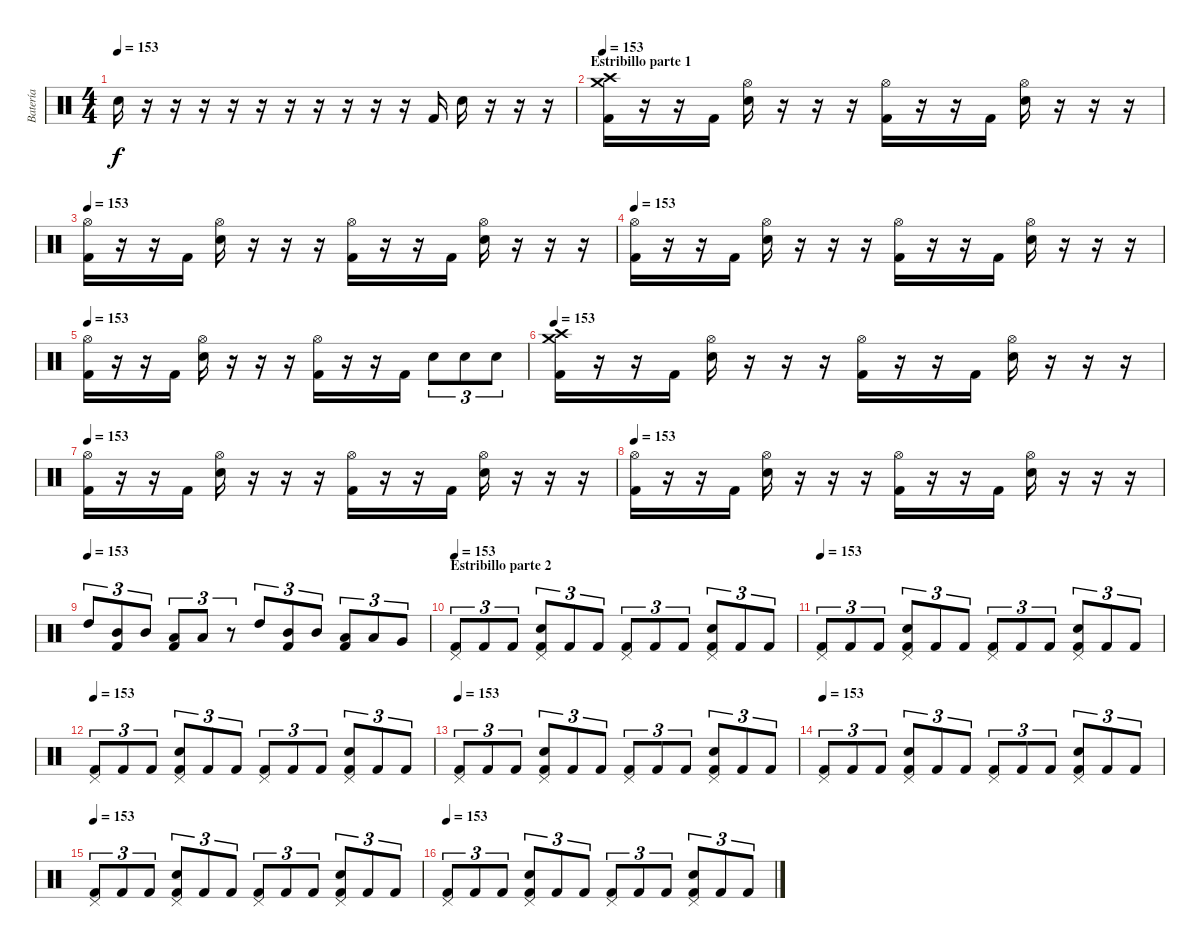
\track ("Batería" "Batería") {instrument percussion}
\staff {score}
\articulation defaults
\ts (4 4)
\tempo 153
\clef neutral
\ks c "Snare (hit) 2".16{dy f}
r.16 r.16 r.16 r.16 r.16 r.16 r.16 r.16 r.16 r.16 "Kick (hit) 2".16 "Snare (hit) 2".16 r.16 r.16 r.16 |
\section ("" "Estribillo parte 1")
\tempo 153
("Crash medium (hit)" "Crash high (hit)" "Kick (hit) 2").16 r.16 r.16 "Kick (hit) 2".16 ("Hi-Hat (open)" "Snare (hit) 2").16 r.16 r.16 r.16 ("Hi-Hat (open)" "Kick (hit) 2").16 r.16 r.16 "Kick (hit) 2".16 ("Hi-Hat (open)" "Snare (hit) 2").16 r.16 r.16 r.16 |
\tempo 153
("Hi-Hat (open)" "Kick (hit) 2").16 r.16 r.16 "Kick (hit) 2".16 ("Hi-Hat (open)" "Snare (hit) 2").16 r.16 r.16 r.16 ("Hi-Hat (open)" "Kick (hit) 2").16 r.16 r.16 "Kick (hit) 2".16 ("Hi-Hat (open)" "Snare (hit) 2").16 r.16 r.16 r.16 |
\tempo 153
("Hi-Hat (open)" "Kick (hit) 2").16 r.16 r.16 "Kick (hit) 2".16 ("Hi-Hat (open)" "Snare (hit) 2").16 r.16 r.16 r.16 ("Hi-Hat (open)" "Kick (hit) 2").16 r.16 r.16 "Kick (hit) 2".16 ("Hi-Hat (open)" "Snare (hit) 2").16 r.16 r.16 r.16 |
\tempo 153
("Hi-Hat (open)" "Kick (hit) 2").16 r.16 r.16 "Kick (hit) 2".16 ("Hi-Hat (open)" "Snare (hit) 2").16 r.16 r.16 r.16 ("Hi-Hat (open)" "Kick (hit) 2").16 r.16 r.16 "Kick (hit) 2".16 "Snare (hit) 2".8{tu (3 2)} "Snare (hit) 2".8{tu (3 2)} "Snare (hit) 2".8{tu (3 2)} |
\tempo 153
("Crash medium (hit)" "Crash high (hit)" "Kick (hit) 2").16 r.16 r.16 "Kick (hit) 2".16 ("Hi-Hat (open)" "Snare (hit) 2").16 r.16 r.16 r.16 ("Hi-Hat (open)" "Kick (hit) 2").16 r.16 r.16 "Kick (hit) 2".16 ("Hi-Hat (open)" "Snare (hit) 2").16 r.16 r.16 r.16 |
\tempo 153
("Hi-Hat (open)" "Kick (hit) 2").16 r.16 r.16 "Kick (hit) 2".16 ("Hi-Hat (open)" "Snare (hit) 2").16 r.16 r.16 r.16 ("Hi-Hat (open)" "Kick (hit) 2").16 r.16 r.16 "Kick (hit) 2".16 ("Hi-Hat (open)" "Snare (hit) 2").16 r.16 r.16 r.16 |
\tempo 153
("Hi-Hat (open)" "Kick (hit) 2").16 r.16 r.16 "Kick (hit) 2".16 ("Hi-Hat (open)" "Snare (hit) 2").16 r.16 r.16 r.16 ("Hi-Hat (open)" "Kick (hit) 2").16 r.16 r.16 "Kick (hit) 2".16 ("Hi-Hat (open)" "Snare (hit) 2").16 r.16 r.16 r.16 |
\tempo (153)
"High Tom (hit)".8{tu (3 2)} ("Mid Tom (hit)" "Kick (hit) 2").8{tu (3 2)} "Mid Tom (hit)".8{tu (3 2)} ("Low Tom (hit)" "Kick (hit) 2").8{tu (3 2)} "Low Tom (hit)".8{tu (3 2)} r.8{tu (3 2)} "High Tom (hit)".8{tu (3 2)} ("Mid Tom (hit)" "Kick (hit) 2").8{tu (3 2)} "Mid Tom (hit)".8{tu (3 2)} ("Low Tom (hit)" "Kick (hit) 2").8{tu (3 2)} "Low Tom (hit)".8{tu (3 2)} "Very Low Tom (hit)".8{tu (3 2)} |
\section ("" "Estribillo parte 2")
\tempo 153
("Pedal Hi-Hat (hit)" "Kick (hit) 2").8{tu (3 2)} "Kick (hit) 2".8{tu (3 2)} "Kick (hit) 2".8{tu (3 2)} ("Pedal Hi-Hat (hit)" "Kick (hit) 2" "Snare (hit) 2").8{tu (3 2)} "Kick (hit) 2".8{tu (3 2)} "Kick (hit) 2".8{tu (3 2)} ("Pedal Hi-Hat (hit)" "Kick (hit) 2").8{tu (3 2)} "Kick (hit) 2".8{tu (3 2)} "Kick (hit) 2".8{tu (3 2)} ("Pedal Hi-Hat (hit)" "Kick (hit) 2" "Snare (hit) 2").8{tu (3 2)} "Kick (hit) 2".8{tu (3 2)} "Kick (hit) 2".8{tu (3 2)} |
\tempo 153
("Pedal Hi-Hat (hit)" "Kick (hit) 2").8{tu (3 2)} "Kick (hit) 2".8{tu (3 2)} "Kick (hit) 2".8{tu (3 2)} ("Pedal Hi-Hat (hit)" "Kick (hit) 2" "Snare (hit) 2").8{tu (3 2)} "Kick (hit) 2".8{tu (3 2)} "Kick (hit) 2".8{tu (3 2)} ("Pedal Hi-Hat (hit)" "Kick (hit) 2").8{tu (3 2)} "Kick (hit) 2".8{tu (3 2)} "Kick (hit) 2".8{tu (3 2)} ("Pedal Hi-Hat (hit)" "Kick (hit) 2" "Snare (hit) 2").8{tu (3 2)} "Kick (hit) 2".8{tu (3 2)} "Kick (hit) 2".8{tu (3 2)} |
\tempo 153
("Pedal Hi-Hat (hit)" "Kick (hit) 2").8{tu (3 2)} "Kick (hit) 2".8{tu (3 2)} "Kick (hit) 2".8{tu (3 2)} ("Pedal Hi-Hat (hit)" "Kick (hit) 2" "Snare (hit) 2").8{tu (3 2)} "Kick (hit) 2".8{tu (3 2)} "Kick (hit) 2".8{tu (3 2)} ("Pedal Hi-Hat (hit)" "Kick (hit) 2").8{tu (3 2)} "Kick (hit) 2".8{tu (3 2)} "Kick (hit) 2".8{tu (3 2)} ("Pedal Hi-Hat (hit)" "Kick (hit) 2" "Snare (hit) 2").8{tu (3 2)} "Kick (hit) 2".8{tu (3 2)} "Kick (hit) 2".8{tu (3 2)} |
\tempo 153
("Pedal Hi-Hat (hit)" "Kick (hit) 2").8{tu (3 2)} "Kick (hit) 2".8{tu (3 2)} "Kick (hit) 2".8{tu (3 2)} ("Pedal Hi-Hat (hit)" "Kick (hit) 2" "Snare (hit) 2").8{tu (3 2)} "Kick (hit) 2".8{tu (3 2)} "Kick (hit) 2".8{tu (3 2)} ("Pedal Hi-Hat (hit)" "Kick (hit) 2").8{tu (3 2)} "Kick (hit) 2".8{tu (3 2)} "Kick (hit) 2".8{tu (3 2)} ("Pedal Hi-Hat (hit)" "Kick (hit) 2" "Snare (hit) 2").8{tu (3 2)} "Kick (hit) 2".8{tu (3 2)} "Kick (hit) 2".8{tu (3 2)} |
\tempo 153
("Pedal Hi-Hat (hit)" "Kick (hit) 2").8{tu (3 2)} "Kick (hit) 2".8{tu (3 2)} "Kick (hit) 2".8{tu (3 2)} ("Pedal Hi-Hat (hit)" "Kick (hit) 2" "Snare (hit) 2").8{tu (3 2)} "Kick (hit) 2".8{tu (3 2)} "Kick (hit) 2".8{tu (3 2)} ("Pedal Hi-Hat (hit)" "Kick (hit) 2").8{tu (3 2)} "Kick (hit) 2".8{tu (3 2)} "Kick (hit) 2".8{tu (3 2)} ("Pedal Hi-Hat (hit)" "Kick (hit) 2" "Snare (hit) 2").8{tu (3 2)} "Kick (hit) 2".8{tu (3 2)} "Kick (hit) 2".8{tu (3 2)} |
\tempo 153
("Pedal Hi-Hat (hit)" "Kick (hit) 2").8{tu (3 2)} "Kick (hit) 2".8{tu (3 2)} "Kick (hit) 2".8{tu (3 2)} ("Pedal Hi-Hat (hit)" "Kick (hit) 2" "Snare (hit) 2").8{tu (3 2)} "Kick (hit) 2".8{tu (3 2)} "Kick (hit) 2".8{tu (3 2)} ("Pedal Hi-Hat (hit)" "Kick (hit) 2").8{tu (3 2)} "Kick (hit) 2".8{tu (3 2)} "Kick (hit) 2".8{tu (3 2)} ("Pedal Hi-Hat (hit)" "Kick (hit) 2" "Snare (hit) 2").8{tu (3 2)} "Kick (hit) 2".8{tu (3 2)} "Kick (hit) 2".8{tu (3 2)} |
\tempo 153
("Pedal Hi-Hat (hit)" "Kick (hit) 2").8{tu (3 2)} "Kick (hit) 2".8{tu (3 2)} "Kick (hit) 2".8{tu (3 2)} ("Pedal Hi-Hat (hit)" "Kick (hit) 2" "Snare (hit) 2").8{tu (3 2)} "Kick (hit) 2".8{tu (3 2)} "Kick (hit) 2".8{tu (3 2)} ("Pedal Hi-Hat (hit)" "Kick (hit) 2").8{tu (3 2)} "Kick (hit) 2".8{tu (3 2)} "Kick (hit) 2".8{tu (3 2)} ("Pedal Hi-Hat (hit)" "Kick (hit) 2" "Snare (hit) 2").8{tu (3 2)} "Kick (hit) 2".8{tu (3 2)} "Kick (hit) 2".8{tu (3 2)}
